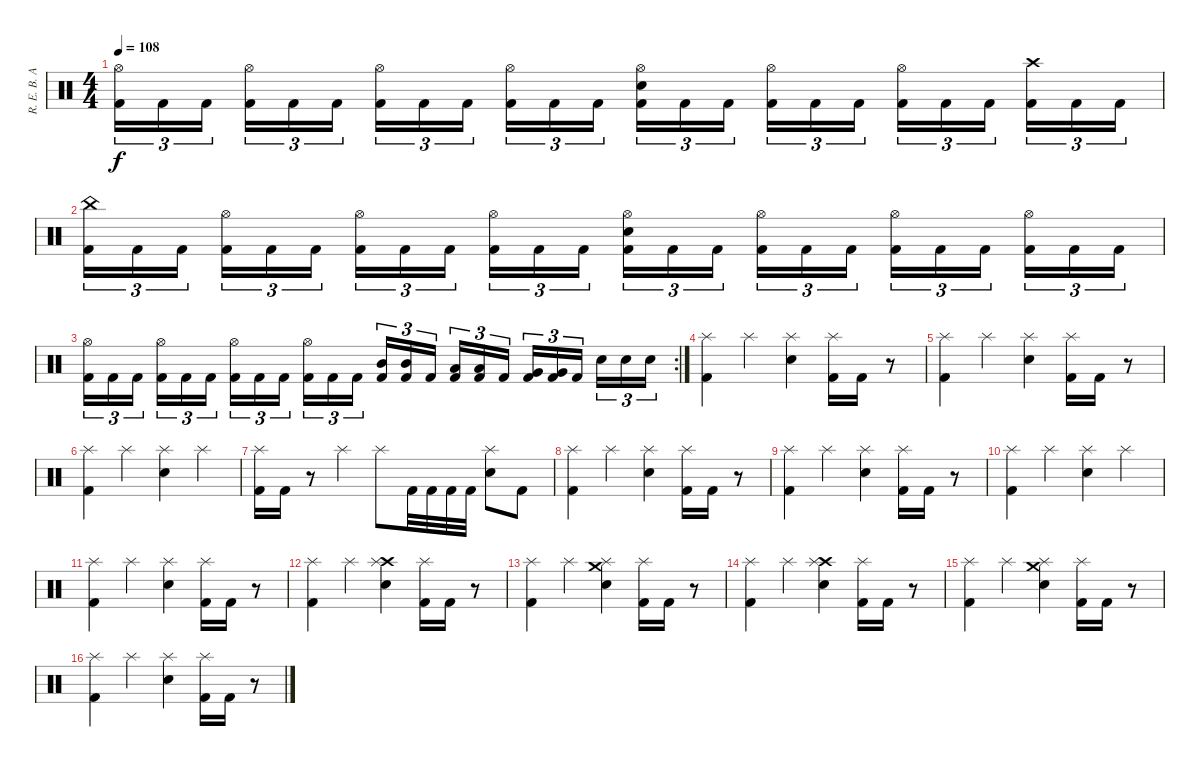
\track ("R. E. B. A." "R. E. B. A") {instrument percussion}
\staff {score}
\articulation defaults
\ts (4 4)
\tempo 108
\clef neutral
\ks c
("Hi-Hat (open)" "Kick (hit) 2").16{tu (3 2) dy f} "Kick (hit) 2".16{tu (3 2)} "Kick (hit) 2".16{tu (3 2)} ("Hi-Hat (open)" "Kick (hit) 2").16{tu (3 2)} "Kick (hit) 2".16{tu (3 2)} "Kick (hit) 2".16{tu (3 2)} ("Hi-Hat (open)" "Kick (hit) 2").16{tu (3 2)} "Kick (hit) 2".16{tu (3 2)} "Kick (hit) 2".16{tu (3 2)} ("Hi-Hat (open)" "Kick (hit) 2").16{tu (3 2)} "Kick (hit) 2".16{tu (3 2)} "Kick (hit) 2".16{tu (3 2)} ("Hi-Hat (open)" "Snare (hit) 2" "Kick (hit) 2").16{tu (3 2)} "Kick (hit) 2".16{tu (3 2)} "Kick (hit) 2".16{tu (3 2)} ("Hi-Hat (open)" "Kick (hit) 2").16{tu (3 2)} "Kick (hit) 2".16{tu (3 2)} "Kick (hit) 2".16{tu (3 2)} ("Hi-Hat (open)" "Kick (hit) 2").16{tu (3 2)} "Kick (hit) 2".16{tu (3 2)} "Kick (hit) 2".16{tu (3 2)} ("Crash high (hit)" "Kick (hit) 2").16{tu (3 2)} "Kick (hit) 2".16{tu (3 2)} "Kick (hit) 2".16{tu (3 2)} |
("China (hit)" "Kick (hit) 2").16{tu (3 2)} "Kick (hit) 2".16{tu (3 2)} "Kick (hit) 2".16{tu (3 2)} ("Hi-Hat (open)" "Kick (hit) 2").16{tu (3 2)} "Kick (hit) 2".16{tu (3 2)} "Kick (hit) 2".16{tu (3 2)} ("Hi-Hat (open)" "Kick (hit) 2").16{tu (3 2)} "Kick (hit) 2".16{tu (3 2)} "Kick (hit) 2".16{tu (3 2)} ("Hi-Hat (open)" "Kick (hit) 2").16{tu (3 2)} "Kick (hit) 2".16{tu (3 2)} "Kick (hit) 2".16{tu (3 2)} ("Hi-Hat (open)" "Snare (hit) 2" "Kick (hit) 2").16{tu (3 2)} "Kick (hit) 2".16{tu (3 2)} "Kick (hit) 2".16{tu (3 2)} ("Hi-Hat (open)" "Kick (hit) 2").16{tu (3 2)} "Kick (hit) 2".16{tu (3 2)} "Kick (hit) 2".16{tu (3 2)} ("Hi-Hat (open)" "Kick (hit) 2").16{tu (3 2)} "Kick (hit) 2".16{tu (3 2)} "Kick (hit) 2".16{tu (3 2)} ("Hi-Hat (open)" "Kick (hit) 2").16{tu (3 2)} "Kick (hit) 2".16{tu (3 2)} "Kick (hit) 2".16{tu (3 2)} |
\rc 2
("Hi-Hat (open)" "Kick (hit) 2").16{tu (3 2)} "Kick (hit) 2".16{tu (3 2)} "Kick (hit) 2".16{tu (3 2)} ("Hi-Hat (open)" "Kick (hit) 2").16{tu (3 2)} "Kick (hit) 2".16{tu (3 2)} "Kick (hit) 2".16{tu (3 2)} ("Hi-Hat (open)" "Kick (hit) 2").16{tu (3 2)} "Kick (hit) 2".16{tu (3 2)} "Kick (hit) 2".16{tu (3 2)} ("Hi-Hat (open)" "Kick (hit) 2").16{tu (3 2)} "Kick (hit) 2".16{tu (3 2)} "Kick (hit) 2".16{tu (3 2)} ("Mid Tom (hit)" "Kick (hit) 2").16{tu (3 2)} ("Mid Tom (hit)" "Kick (hit) 2").16{tu (3 2)} "Kick (hit) 2".16{tu (3 2)} ("Low Tom (hit)" "Kick (hit) 2").16{tu (3 2)} ("Low Tom (hit)" "Kick (hit) 2").16{tu (3 2)} "Kick (hit) 2".16{tu (3 2)} ("Very Low Tom (hit)" "Kick (hit) 2").16{tu (3 2)} ("Very Low Tom (hit)" "Kick (hit) 2").16{tu (3 2)} "Kick (hit) 2".16{tu (3 2)} "Snare (hit) 2".16{tu (3 2)} "Snare (hit) 2".16{tu (3 2)} "Snare (hit) 2".16{tu (3 2)} |
("Splash (hit)" "Kick (hit) 2").4 "Splash (hit)".4 ("Splash (hit)" "Snare (hit) 2").4 ("Splash (hit)" "Kick (hit) 2").16 "Kick (hit) 2".16 r.8 |
("Splash (hit)" "Kick (hit) 2").4 "Splash (hit)".4 ("Splash (hit)" "Snare (hit) 2").4 ("Splash (hit)" "Kick (hit) 2").16 "Kick (hit) 2".16 r.8 |
("Splash (hit)" "Kick (hit) 2").4 "Splash (hit)".4 ("Splash (hit)" "Snare (hit) 2").4 "Splash (hit)".4 |
("Splash (hit)" "Kick (hit) 2").16 "Kick (hit) 2".16 r.8 "Splash (hit)".4 "Splash (hit)".8 "Kick (hit) 2".32 "Kick (hit) 2".32 "Kick (hit) 2".32 "Kick (hit) 2".32 ("Splash (hit)" "Snare (hit) 2").8 "Kick (hit) 2".8 |
("Splash (hit)" "Kick (hit) 2").4 "Splash (hit)".4 ("Splash (hit)" "Snare (hit) 2").4 ("Splash (hit)" "Kick (hit) 2").16 "Kick (hit) 2".16 r.8 |
("Splash (hit)" "Kick (hit) 2").4 "Splash (hit)".4 ("Splash (hit)" "Snare (hit) 2").4 ("Splash (hit)" "Kick (hit) 2").16 "Kick (hit) 2".16 r.8 |
("Splash (hit)" "Kick (hit) 2").4 "Splash (hit)".4 ("Splash (hit)" "Snare (hit) 2").4 "Splash (hit)".4 |
("Splash (hit)" "Kick (hit) 2").4 "Splash (hit)".4 ("Splash (hit)" "Snare (hit) 2").4 ("Splash (hit)" "Kick (hit) 2").16 "Kick (hit) 2".16 r.8 |
("Splash (hit)" "Kick (hit) 2").4 "Splash (hit)".4 ("Crash high (hit)" "Splash (hit)" "Snare (hit) 2").4 ("Splash (hit)" "Kick (hit) 2").16 "Kick (hit) 2".16 r.8 |
("Splash (hit)" "Kick (hit) 2").4 "Splash (hit)".4 ("Crash medium (hit)" "Splash (hit)" "Snare (hit) 2").4 ("Splash (hit)" "Kick (hit) 2").16 "Kick (hit) 2".16 r.8 |
("Splash (hit)" "Kick (hit) 2").4 "Splash (hit)".4 ("Crash high (hit)" "Splash (hit)" "Snare (hit) 2").4 ("Splash (hit)" "Kick (hit) 2").16 "Kick (hit) 2".16 r.8 |
("Splash (hit)" "Kick (hit) 2").4 "Splash (hit)".4 ("Crash medium (hit)" "Splash (hit)" "Snare (hit) 2").4 ("Splash (hit)" "Kick (hit) 2").16 "Kick (hit) 2".16 r.8 |
("Splash (hit)" "Kick (hit) 2").4 "Splash (hit)".4 ("Splash (hit)" "Snare (hit) 2").4 ("Splash (hit)" "Kick (hit) 2").16 "Kick (hit) 2".16 r.8
